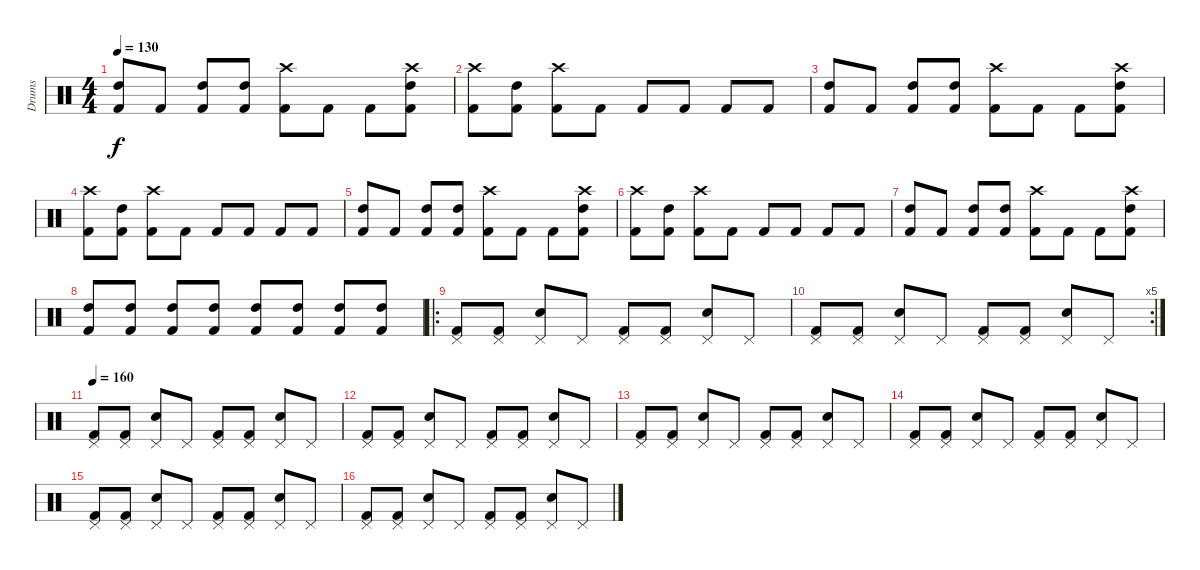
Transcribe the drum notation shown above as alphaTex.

\track ("Drums" "Drums") {instrument percussion}
\staff {score}
\articulation defaults
\ts (4 4)
\tempo 130
\clef neutral
\ks c
("Kick (hit) 2" "High Tom (hit)").8{dy f} "Kick (hit) 2".8 ("Kick (hit) 2" "High Tom (hit)").8 ("Kick (hit) 2" "High Tom (hit)").8 ("Kick (hit) 2" "Crash high (hit)").8 "Kick (hit) 2".8 "Kick (hit) 2".8 ("Kick (hit) 2" "Crash high (hit)" "High Tom (hit)").8 |
("Kick (hit) 2" "Crash high (hit)").8 ("Kick (hit) 2" "High Tom (hit)").8 ("Kick (hit) 2" "Crash high (hit)").8 "Kick (hit) 2".8 "Kick (hit) 2".8 "Kick (hit) 2".8 "Kick (hit) 2".8 "Kick (hit) 2".8 |
("Kick (hit) 2" "High Tom (hit)").8 "Kick (hit) 2".8 ("Kick (hit) 2" "High Tom (hit)").8 ("Kick (hit) 2" "High Tom (hit)").8 ("Kick (hit) 2" "Crash high (hit)").8 "Kick (hit) 2".8 "Kick (hit) 2".8 ("Kick (hit) 2" "Crash high (hit)" "High Tom (hit)").8 |
("Kick (hit) 2" "Crash high (hit)").8 ("Kick (hit) 2" "High Tom (hit)").8 ("Kick (hit) 2" "Crash high (hit)").8 "Kick (hit) 2".8 "Kick (hit) 2".8 "Kick (hit) 2".8 "Kick (hit) 2".8 "Kick (hit) 2".8 |
("Kick (hit) 2" "High Tom (hit)").8 "Kick (hit) 2".8 ("Kick (hit) 2" "High Tom (hit)").8 ("Kick (hit) 2" "High Tom (hit)").8 ("Kick (hit) 2" "Crash high (hit)").8 "Kick (hit) 2".8 "Kick (hit) 2".8 ("Kick (hit) 2" "Crash high (hit)" "High Tom (hit)").8 |
("Kick (hit) 2" "Crash high (hit)").8 ("Kick (hit) 2" "High Tom (hit)").8 ("Kick (hit) 2" "Crash high (hit)").8 "Kick (hit) 2".8 "Kick (hit) 2".8 "Kick (hit) 2".8 "Kick (hit) 2".8 "Kick (hit) 2".8 |
("Kick (hit) 2" "High Tom (hit)").8 "Kick (hit) 2".8 ("Kick (hit) 2" "High Tom (hit)").8 ("Kick (hit) 2" "High Tom (hit)").8 ("Kick (hit) 2" "Crash high (hit)").8 "Kick (hit) 2".8 "Kick (hit) 2".8 ("Kick (hit) 2" "Crash high (hit)" "High Tom (hit)").8 |
("Kick (hit) 2" "High Tom (hit)").8 ("Kick (hit) 2" "High Tom (hit)").8 ("Kick (hit) 2" "High Tom (hit)").8 ("Kick (hit) 2" "High Tom (hit)").8 ("Kick (hit) 2" "High Tom (hit)").8 ("Kick (hit) 2" "High Tom (hit)").8 ("Kick (hit) 2" "High Tom (hit)").8 ("Kick (hit) 2" "High Tom (hit)").8 |
\ro
("Pedal Hi-Hat (hit)" "Kick (hit) 2").8 ("Pedal Hi-Hat (hit)" "Kick (hit) 2").8 ("Pedal Hi-Hat (hit)" "Snare (hit) 2").8 "Pedal Hi-Hat (hit)".8 ("Pedal Hi-Hat (hit)" "Kick (hit) 2").8 ("Pedal Hi-Hat (hit)" "Kick (hit) 2").8 ("Pedal Hi-Hat (hit)" "Snare (hit) 2").8 "Pedal Hi-Hat (hit)".8 |
\rc 5
("Pedal Hi-Hat (hit)" "Kick (hit) 2").8 ("Pedal Hi-Hat (hit)" "Kick (hit) 2").8 ("Pedal Hi-Hat (hit)" "Snare (hit) 2").8 "Pedal Hi-Hat (hit)".8 ("Pedal Hi-Hat (hit)" "Kick (hit) 2").8 ("Pedal Hi-Hat (hit)" "Kick (hit) 2").8 ("Pedal Hi-Hat (hit)" "Snare (hit) 2").8 "Pedal Hi-Hat (hit)".8 |
\tempo 160
("Pedal Hi-Hat (hit)" "Kick (hit) 2").8 ("Pedal Hi-Hat (hit)" "Kick (hit) 2").8 ("Pedal Hi-Hat (hit)" "Snare (hit) 2").8 "Pedal Hi-Hat (hit)".8 ("Pedal Hi-Hat (hit)" "Kick (hit) 2").8 ("Pedal Hi-Hat (hit)" "Kick (hit) 2").8 ("Pedal Hi-Hat (hit)" "Snare (hit) 2").8 "Pedal Hi-Hat (hit)".8 |
("Pedal Hi-Hat (hit)" "Kick (hit) 2").8 ("Pedal Hi-Hat (hit)" "Kick (hit) 2").8 ("Pedal Hi-Hat (hit)" "Snare (hit) 2").8 "Pedal Hi-Hat (hit)".8 ("Pedal Hi-Hat (hit)" "Kick (hit) 2").8 ("Pedal Hi-Hat (hit)" "Kick (hit) 2").8 ("Pedal Hi-Hat (hit)" "Snare (hit) 2").8 "Pedal Hi-Hat (hit)".8 |
("Pedal Hi-Hat (hit)" "Kick (hit) 2").8 ("Pedal Hi-Hat (hit)" "Kick (hit) 2").8 ("Pedal Hi-Hat (hit)" "Snare (hit) 2").8 "Pedal Hi-Hat (hit)".8 ("Pedal Hi-Hat (hit)" "Kick (hit) 2").8 ("Pedal Hi-Hat (hit)" "Kick (hit) 2").8 ("Pedal Hi-Hat (hit)" "Snare (hit) 2").8 "Pedal Hi-Hat (hit)".8 |
("Pedal Hi-Hat (hit)" "Kick (hit) 2").8 ("Pedal Hi-Hat (hit)" "Kick (hit) 2").8 ("Pedal Hi-Hat (hit)" "Snare (hit) 2").8 "Pedal Hi-Hat (hit)".8 ("Pedal Hi-Hat (hit)" "Kick (hit) 2").8 ("Pedal Hi-Hat (hit)" "Kick (hit) 2").8 ("Pedal Hi-Hat (hit)" "Snare (hit) 2").8 "Pedal Hi-Hat (hit)".8 |
("Pedal Hi-Hat (hit)" "Kick (hit) 2").8 ("Pedal Hi-Hat (hit)" "Kick (hit) 2").8 ("Pedal Hi-Hat (hit)" "Snare (hit) 2").8 "Pedal Hi-Hat (hit)".8 ("Pedal Hi-Hat (hit)" "Kick (hit) 2").8 ("Pedal Hi-Hat (hit)" "Kick (hit) 2").8 ("Pedal Hi-Hat (hit)" "Snare (hit) 2").8 "Pedal Hi-Hat (hit)".8 |
("Pedal Hi-Hat (hit)" "Kick (hit) 2").8 ("Pedal Hi-Hat (hit)" "Kick (hit) 2").8 ("Pedal Hi-Hat (hit)" "Snare (hit) 2").8 "Pedal Hi-Hat (hit)".8 ("Pedal Hi-Hat (hit)" "Kick (hit) 2").8 ("Pedal Hi-Hat (hit)" "Kick (hit) 2").8 ("Pedal Hi-Hat (hit)" "Snare (hit) 2").8 "Pedal Hi-Hat (hit)".8
